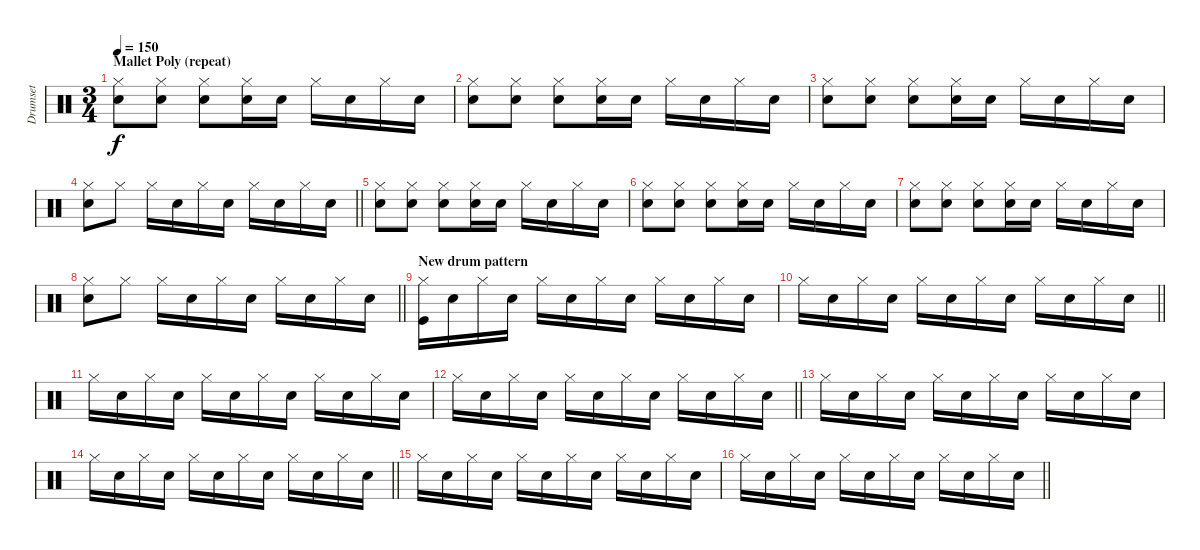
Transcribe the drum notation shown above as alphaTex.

\track ("Drumset" "Drumset") {instrument percussion}
\staff {score}
\articulation defaults
\ts (3 4)
\section ("" "Mallet Poly (repeat)")
\tempo 150
\clef neutral
\ks c
("Hi-Hat (closed)" "Snare (hit) 2").8{dy f} ("Hi-Hat (closed)" "Snare (hit) 2").8 ("Hi-Hat (closed)" "Snare (hit) 2").8 ("Hi-Hat (closed)" "Snare (hit) 2").16 "Snare (hit) 2".16 "Hi-Hat (closed)".16 "Snare (hit) 2".16 "Hi-Hat (closed)".16 "Snare (hit) 2".16 |
("Hi-Hat (closed)" "Snare (hit) 2").8 ("Hi-Hat (closed)" "Snare (hit) 2").8 ("Hi-Hat (closed)" "Snare (hit) 2").8 ("Hi-Hat (closed)" "Snare (hit) 2").16 "Snare (hit) 2".16 "Hi-Hat (closed)".16 "Snare (hit) 2".16 "Hi-Hat (closed)".16 "Snare (hit) 2".16 |
("Hi-Hat (closed)" "Snare (hit) 2").8 ("Hi-Hat (closed)" "Snare (hit) 2").8 ("Hi-Hat (closed)" "Snare (hit) 2").8 ("Hi-Hat (closed)" "Snare (hit) 2").16 "Snare (hit) 2".16 "Hi-Hat (closed)".16 "Snare (hit) 2".16 "Hi-Hat (closed)".16 "Snare (hit) 2".16 |
\barLineRight lightlight
("Hi-Hat (closed)" "Snare (hit) 2").8 "Hi-Hat (closed)".8 "Hi-Hat (closed)".16 "Snare (hit) 2".16 "Hi-Hat (closed)".16 "Snare (hit) 2".16 "Hi-Hat (closed)".16 "Snare (hit) 2".16 "Hi-Hat (closed)".16 "Snare (hit) 2".16 |
("Hi-Hat (closed)" "Snare (hit) 2").8 ("Hi-Hat (closed)" "Snare (hit) 2").8 ("Hi-Hat (closed)" "Snare (hit) 2").8 ("Hi-Hat (closed)" "Snare (hit) 2").16 "Snare (hit) 2".16 "Hi-Hat (closed)".16 "Snare (hit) 2".16 "Hi-Hat (closed)".16 "Snare (hit) 2".16 |
("Hi-Hat (closed)" "Snare (hit) 2").8 ("Hi-Hat (closed)" "Snare (hit) 2").8 ("Hi-Hat (closed)" "Snare (hit) 2").8 ("Hi-Hat (closed)" "Snare (hit) 2").16 "Snare (hit) 2".16 "Hi-Hat (closed)".16 "Snare (hit) 2".16 "Hi-Hat (closed)".16 "Snare (hit) 2".16 |
("Hi-Hat (closed)" "Snare (hit) 2").8 ("Hi-Hat (closed)" "Snare (hit) 2").8 ("Hi-Hat (closed)" "Snare (hit) 2").8 ("Hi-Hat (closed)" "Snare (hit) 2").16 "Snare (hit) 2".16 "Hi-Hat (closed)".16 "Snare (hit) 2".16 "Hi-Hat (closed)".16 "Snare (hit) 2".16 |
\barLineRight lightlight
("Hi-Hat (closed)" "Snare (hit) 2").8 "Hi-Hat (closed)".8 "Hi-Hat (closed)".16 "Snare (hit) 2".16 "Hi-Hat (closed)".16 "Snare (hit) 2".16 "Hi-Hat (closed)".16 "Snare (hit) 2".16 "Hi-Hat (closed)".16 "Snare (hit) 2".16 |
\section ("" "New drum pattern")
("Hi-Hat (closed)" "Kick (hit)").16 "Snare (hit) 2".16 "Hi-Hat (closed)".16 "Snare (hit) 2".16 "Hi-Hat (closed)".16 "Snare (hit) 2".16 "Hi-Hat (closed)".16 "Snare (hit) 2".16 "Hi-Hat (closed)".16 "Snare (hit) 2".16 "Hi-Hat (closed)".16 "Snare (hit) 2".16 |
\barLineRight lightlight "Hi-Hat (closed)".16 "Snare (hit) 2".16 "Hi-Hat (closed)".16 "Snare (hit) 2".16 "Hi-Hat (closed)".16 "Snare (hit) 2".16 "Hi-Hat (closed)".16 "Snare (hit) 2".16 "Hi-Hat (closed)".16 "Snare (hit) 2".16 "Hi-Hat (closed)".16 "Snare (hit) 2".16
|
"Hi-Hat (closed)".16 "Snare (hit) 2".16 "Hi-Hat (closed)".16 "Snare (hit) 2".16 "Hi-Hat (closed)".16 "Snare (hit) 2".16 "Hi-Hat (closed)".16 "Snare (hit) 2".16 "Hi-Hat (closed)".16 "Snare (hit) 2".16 "Hi-Hat (closed)".16 "Snare (hit) 2".16 |
\barLineRight lightlight "Hi-Hat (closed)".16 "Snare (hit) 2".16 "Hi-Hat (closed)".16 "Snare (hit) 2".16 "Hi-Hat (closed)".16 "Snare (hit) 2".16 "Hi-Hat (closed)".16 "Snare (hit) 2".16 "Hi-Hat (closed)".16 "Snare (hit) 2".16 "Hi-Hat (closed)".16 "Snare (hit) 2".16
|
"Hi-Hat (closed)".16 "Snare (hit) 2".16 "Hi-Hat (closed)".16 "Snare (hit) 2".16 "Hi-Hat (closed)".16 "Snare (hit) 2".16 "Hi-Hat (closed)".16 "Snare (hit) 2".16 "Hi-Hat (closed)".16 "Snare (hit) 2".16 "Hi-Hat (closed)".16 "Snare (hit) 2".16 |
\barLineRight lightlight "Hi-Hat (closed)".16 "Snare (hit) 2".16 "Hi-Hat (closed)".16 "Snare (hit) 2".16 "Hi-Hat (closed)".16 "Snare (hit) 2".16 "Hi-Hat (closed)".16 "Snare (hit) 2".16 "Hi-Hat (closed)".16 "Snare (hit) 2".16 "Hi-Hat (closed)".16 "Snare (hit) 2".16
|
"Hi-Hat (closed)".16 "Snare (hit) 2".16 "Hi-Hat (closed)".16 "Snare (hit) 2".16 "Hi-Hat (closed)".16 "Snare (hit) 2".16 "Hi-Hat (closed)".16 "Snare (hit) 2".16 "Hi-Hat (closed)".16 "Snare (hit) 2".16 "Hi-Hat (closed)".16 "Snare (hit) 2".16 |
\barLineRight lightlight "Hi-Hat (closed)".16 "Snare (hit) 2".16 "Hi-Hat (closed)".16 "Snare (hit) 2".16 "Hi-Hat (closed)".16 "Snare (hit) 2".16 "Hi-Hat (closed)".16 "Snare (hit) 2".16 "Hi-Hat (closed)".16 "Snare (hit) 2".16 "Hi-Hat (closed)".16 "Snare (hit) 2".16
